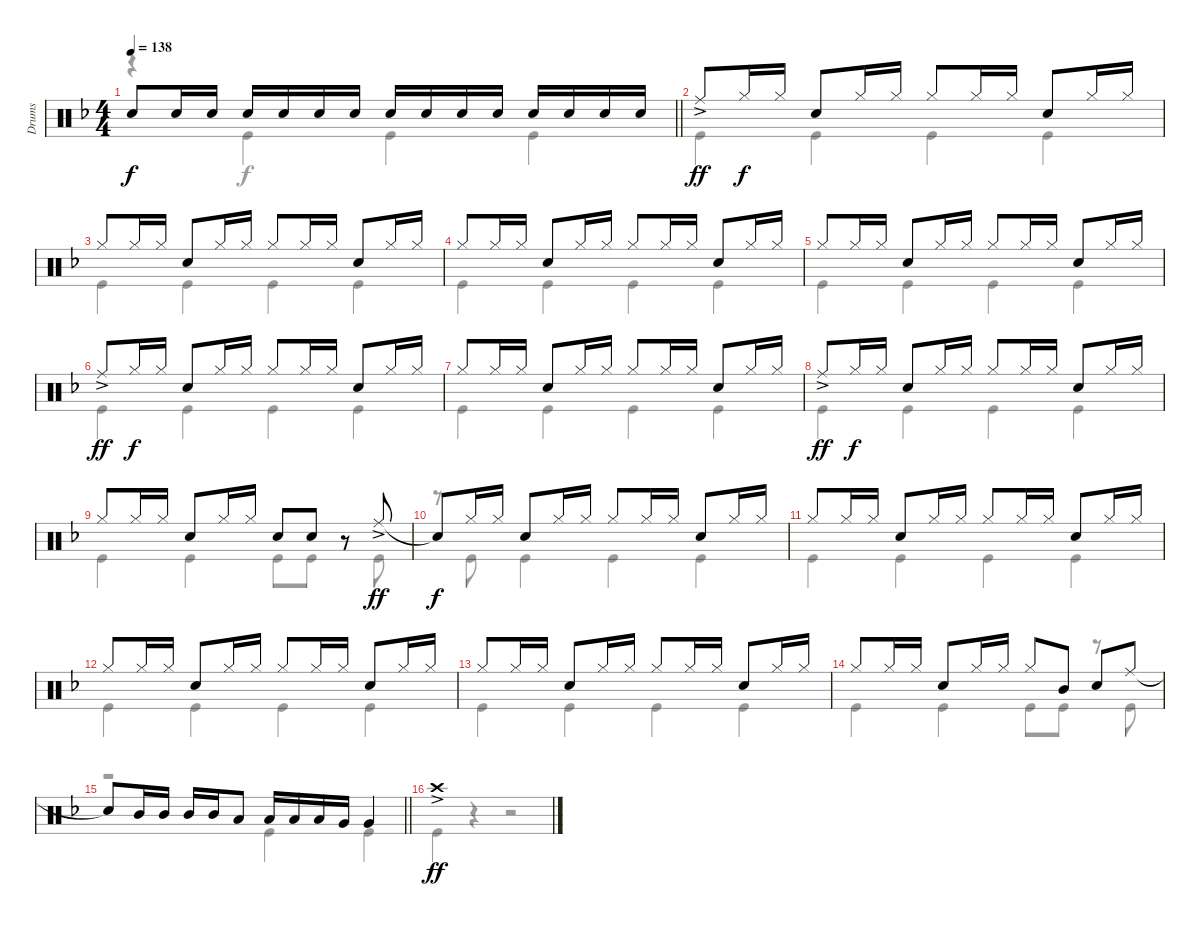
\track ("Drums" "Drums") {instrument percussion}
\staff {score}
\articulation defaults
\voice
\ts (4 4)
\tempo 138
\clef neutral
\barLineRight lightlight
\ks f "Snare (hit)"{t}.8{dy f} "Snare (hit) 2".16 "Snare (hit) 2".16 "Snare (hit) 2".16 "Snare (hit) 2".16 "Snare (hit) 2".16 "Snare (hit) 2".16 "Snare (hit) 2".16 "Snare (hit) 2".16 "Snare (hit) 2".16 "Snare (hit) 2".16 "Snare (hit) 2".16 "Snare (hit) 2".16 "Snare (hit) 2".16 "Snare (hit) 2".16
|
"Ride (middle)"{ac}.8{dy ff} "Hi-Hat (closed)".16{dy f} "Hi-Hat (closed)".16 "Snare (hit) 2".8 "Hi-Hat (closed)".16 "Hi-Hat (closed)".16 "Hi-Hat (closed)".8 "Hi-Hat (closed)".16 "Hi-Hat (closed)".16 "Snare (hit) 2".8 "Hi-Hat (closed)".16 "Hi-Hat (closed)".16 |
"Hi-Hat (closed)".8 "Hi-Hat (closed)".16 "Hi-Hat (closed)".16 "Snare (hit) 2".8 "Hi-Hat (closed)".16 "Hi-Hat (closed)".16 "Hi-Hat (closed)".8 "Hi-Hat (closed)".16 "Hi-Hat (closed)".16 "Snare (hit) 2".8 "Hi-Hat (closed)".16 "Hi-Hat (closed)".16 |
"Hi-Hat (closed)".8 "Hi-Hat (closed)".16 "Hi-Hat (closed)".16 "Snare (hit) 2".8 "Hi-Hat (closed)".16 "Hi-Hat (closed)".16 "Hi-Hat (closed)".8 "Hi-Hat (closed)".16 "Hi-Hat (closed)".16 "Snare (hit) 2".8 "Hi-Hat (closed)".16 "Hi-Hat (closed)".16 |
"Hi-Hat (closed)".8 "Hi-Hat (closed)".16 "Hi-Hat (closed)".16 "Snare (hit) 2".8 "Hi-Hat (closed)".16 "Hi-Hat (closed)".16 "Hi-Hat (closed)".8 "Hi-Hat (closed)".16 "Hi-Hat (closed)".16 "Snare (hit) 2".8 "Hi-Hat (closed)".16 "Hi-Hat (closed)".16 |
"Ride (middle)"{ac}.8{dy ff} "Hi-Hat (closed)".16{dy f} "Hi-Hat (closed)".16 "Snare (hit) 2".8 "Hi-Hat (closed)".16 "Hi-Hat (closed)".16 "Hi-Hat (closed)".8 "Hi-Hat (closed)".16 "Hi-Hat (closed)".16 "Snare (hit) 2".8 "Hi-Hat (closed)".16 "Hi-Hat (closed)".16 |
"Hi-Hat (closed)".8 "Hi-Hat (closed)".16 "Hi-Hat (closed)".16 "Snare (hit) 2".8 "Hi-Hat (closed)".16 "Hi-Hat (closed)".16 "Hi-Hat (closed)".8 "Hi-Hat (closed)".16 "Hi-Hat (closed)".16 "Snare (hit) 2".8 "Hi-Hat (closed)".16 "Hi-Hat (closed)".16 |
"Ride (middle)"{ac}.8{dy ff} "Hi-Hat (closed)".16{dy f} "Hi-Hat (closed)".16 "Snare (hit) 2".8 "Hi-Hat (closed)".16 "Hi-Hat (closed)".16 "Hi-Hat (closed)".8 "Hi-Hat (closed)".16 "Hi-Hat (closed)".16 "Snare (hit) 2".8 "Hi-Hat (closed)".16 "Hi-Hat (closed)".16 |
"Hi-Hat (closed)".8 "Hi-Hat (closed)".16 "Hi-Hat (closed)".16 "Snare (hit) 2".8 "Hi-Hat (closed)".16 "Hi-Hat (closed)".16 "Snare (hit) 2".8 "Snare (hit) 2".8 r.8 "Ride (middle)"{ac}.8{dy ff} |
"Snare (hit)"{t}.8{dy f} "Hi-Hat (closed)".16 "Hi-Hat (closed)".16 "Snare (hit) 2".8 "Hi-Hat (closed)".16 "Hi-Hat (closed)".16 "Hi-Hat (closed)".8 "Hi-Hat (closed)".16 "Hi-Hat (closed)".16 "Snare (hit) 2".8 "Hi-Hat (closed)".16 "Hi-Hat (closed)".16 |
"Hi-Hat (closed)".8 "Hi-Hat (closed)".16 "Hi-Hat (closed)".16 "Snare (hit) 2".8 "Hi-Hat (closed)".16 "Hi-Hat (closed)".16 "Hi-Hat (closed)".8 "Hi-Hat (closed)".16 "Hi-Hat (closed)".16 "Snare (hit) 2".8 "Hi-Hat (closed)".16 "Hi-Hat (closed)".16 |
"Hi-Hat (closed)".8 "Hi-Hat (closed)".16 "Hi-Hat (closed)".16 "Snare (hit) 2".8 "Hi-Hat (closed)".16 "Hi-Hat (closed)".16 "Hi-Hat (closed)".8 "Hi-Hat (closed)".16 "Hi-Hat (closed)".16 "Snare (hit) 2".8 "Hi-Hat (closed)".16 "Hi-Hat (closed)".16 |
"Hi-Hat (closed)".8 "Hi-Hat (closed)".16 "Hi-Hat (closed)".16 "Snare (hit) 2".8 "Hi-Hat (closed)".16 "Hi-Hat (closed)".16 "Hi-Hat (closed)".8 "Hi-Hat (closed)".16 "Hi-Hat (closed)".16 "Snare (hit) 2".8 "Hi-Hat (closed)".16 "Hi-Hat (closed)".16 |
"Hi-Hat (closed)".8 "Hi-Hat (closed)".16 "Hi-Hat (closed)".16 "Snare (hit) 2".8 "Hi-Hat (closed)".16 "Hi-Hat (closed)".16 "Hi-Hat (closed)".8 "Mid Tom (hit)".8 "Snare (hit) 2".8 "Ride (middle)".8 |
\barLineRight lightlight "Snare (hit)"{t}.8 "Mid Tom (hit)".16 "Mid Tom (hit)".16 "Mid Tom (hit)".16 "Mid Tom (hit)".16 "Low Tom (hit)".8 "Low Tom (hit)".16 "Low Tom (hit)".16 "Low Tom (hit)".16 "Very Low Tom (hit)".16 "Very Low Tom (hit)".4
|
"Crash high (hit)"{ac}.1{dy ff}
\voice
\clef neutral
\ottava regular
\simile none
\barLineRight lightlight
\ks f
r.4{dy f} "Kick (hit)".4 "Kick (hit)".4 "Kick (hit)".4 |
"Kick (hit)".4 "Kick (hit)".4 "Kick (hit)".4 "Kick (hit)".4 |
"Kick (hit)".4 "Kick (hit)".4 "Kick (hit)".4 "Kick (hit)".4 |
"Kick (hit)".4 "Kick (hit)".4 "Kick (hit)".4 "Kick (hit)".4 |
"Kick (hit)".4 "Kick (hit)".4 "Kick (hit)".4 "Kick (hit)".4 |
"Kick (hit)".4 "Kick (hit)".4 "Kick (hit)".4 "Kick (hit)".4 |
"Kick (hit)".4 "Kick (hit)".4 "Kick (hit)".4 "Kick (hit)".4 |
"Kick (hit)".4 "Kick (hit)".4 "Kick (hit)".4 "Kick (hit)".4 |
"Kick (hit)".4 "Kick (hit)".4 "Kick (hit)".8 "Kick (hit)".8 r.8 "Kick (hit)".8 |
r.8 "Kick (hit)".8 "Kick (hit)".4 "Kick (hit)".4 "Kick (hit)".4 |
"Kick (hit)".4 "Kick (hit)".4 "Kick (hit)".4 "Kick (hit)".4 |
"Kick (hit)".4 "Kick (hit)".4 "Kick (hit)".4 "Kick (hit)".4 |
"Kick (hit)".4 "Kick (hit)".4 "Kick (hit)".4 "Kick (hit)".4 |
"Kick (hit)".4 "Kick (hit)".4 "Kick (hit)".8 "Kick (hit)".8 r.8 "Kick (hit)".8 |
\barLineRight lightlight
r.2 "Kick (hit)".4 "Kick (hit)".4 |
"Kick (hit)".4 r.4 r.2
